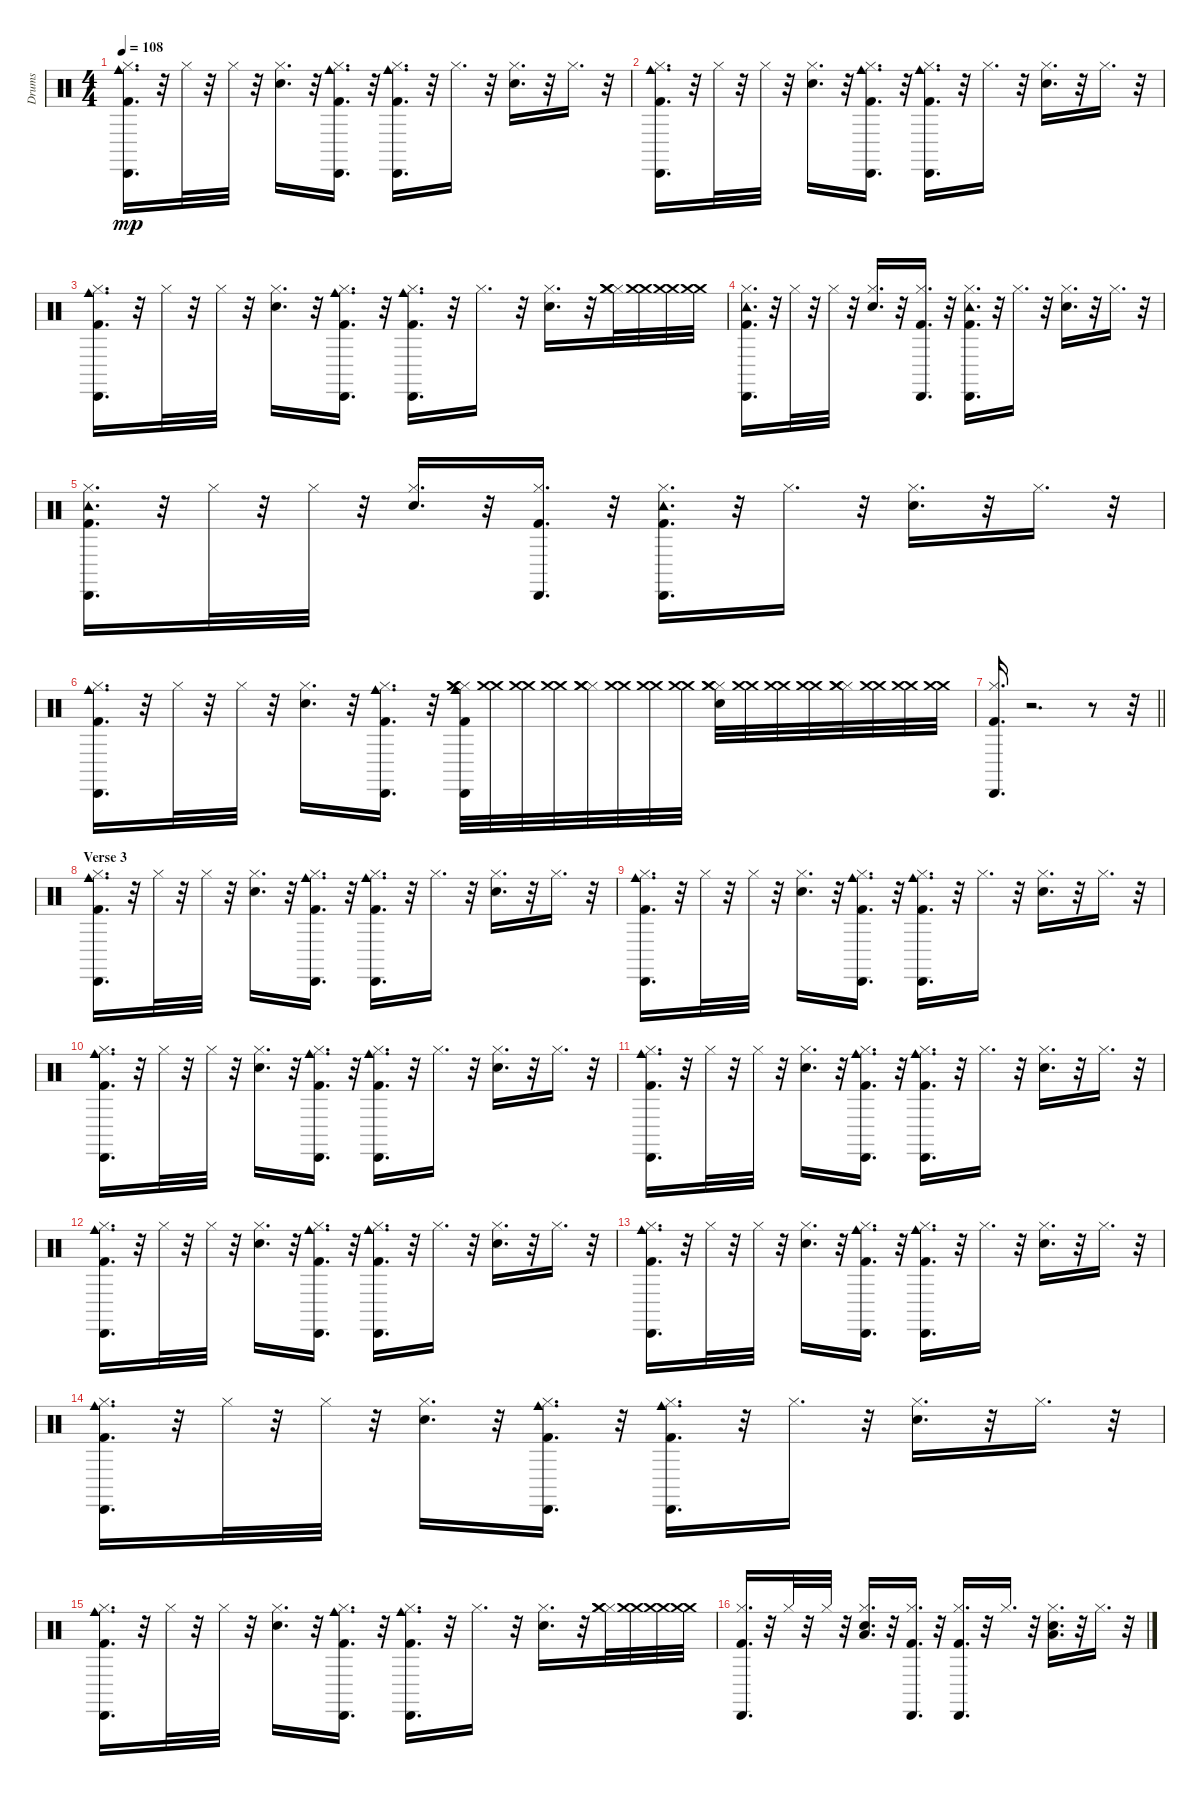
\track ("Drums" "Drums") {instrument percussion}
\staff {score}
\articulation defaults
\ts (4 4)
\tempo 108
\clef neutral
\ks c
("Kick (hit) 2" "Hi-Hat (closed)" "Cabasa (hit)" "Cowbell medium (hit)").16{d dy mp} r.32 "Hi-Hat (closed)".32 r.32 "Hi-Hat (closed)".32 r.32 ("Snare (hit) 2" "Hi-Hat (closed)").16{d} r.32 ("Kick (hit) 2" "Hi-Hat (closed)" "Cabasa (hit)" "Cowbell medium (hit)").16{d} r.32 ("Kick (hit) 2" "Hi-Hat (closed)" "Cabasa (hit)" "Cowbell medium (hit)").16{d} r.32 "Hi-Hat (closed)".16{d} r.32 ("Snare (hit) 2" "Hi-Hat (closed)").16{d} r.32 "Hi-Hat (closed)".16{d} r.32 |
("Kick (hit) 2" "Hi-Hat (closed)" "Cabasa (hit)" "Cowbell medium (hit)").16{d} r.32 "Hi-Hat (closed)".32 r.32 "Hi-Hat (closed)".32 r.32 ("Snare (hit) 2" "Hi-Hat (closed)").16{d} r.32 ("Kick (hit) 2" "Hi-Hat (closed)" "Cabasa (hit)" "Cowbell medium (hit)").16{d} r.32 ("Kick (hit) 2" "Hi-Hat (closed)" "Cabasa (hit)" "Cowbell medium (hit)").16{d} r.32 "Hi-Hat (closed)".16{d} r.32 ("Snare (hit) 2" "Hi-Hat (closed)").16{d} r.32 "Hi-Hat (closed)".16{d} r.32 |
("Kick (hit) 2" "Hi-Hat (closed)" "Cabasa (hit)" "Cowbell medium (hit)").16{d} r.32 "Hi-Hat (closed)".32 r.32 "Hi-Hat (closed)".32 r.32 ("Snare (hit) 2" "Hi-Hat (closed)").16{d} r.32 ("Kick (hit) 2" "Hi-Hat (closed)" "Cabasa (hit)" "Cowbell medium (hit)").16{d} r.32 ("Kick (hit) 2" "Hi-Hat (closed)" "Cabasa (hit)" "Cowbell medium (hit)").16{d} r.32 "Hi-Hat (closed)".16{d} r.32 ("Snare (hit) 2" "Hi-Hat (closed)").16{d} r.32 ("Hi-Hat (closed)" "Crash medium (hit)" "Crash medium (hit)").32 ("Crash medium (hit)" "Crash medium (hit)").32 ("Crash medium (hit)" "Crash medium (hit)").32 ("Crash medium (hit)" "Crash medium (hit)").32 |
("Kick (hit) 2" "Hi-Hat (closed)" "Cabasa (hit)" "Tambourine (hit)").16{d} r.32 "Hi-Hat (closed)".32 r.32 "Hi-Hat (closed)".32 r.32 ("Snare (hit) 2" "Hi-Hat (closed)").16{d} r.32 ("Kick (hit) 2" "Hi-Hat (closed)" "Cabasa (hit)").16{d} r.32 ("Kick (hit) 2" "Hi-Hat (closed)" "Cabasa (hit)" "Tambourine (hit)").16{d} r.32 "Hi-Hat (closed)".16{d} r.32 ("Snare (hit) 2" "Hi-Hat (closed)").16{d} r.32 "Hi-Hat (closed)".16{d} r.32 |
("Kick (hit) 2" "Hi-Hat (closed)" "Cabasa (hit)" "Tambourine (hit)").16{d} r.32 "Hi-Hat (closed)".32 r.32 "Hi-Hat (closed)".32 r.32 ("Snare (hit) 2" "Hi-Hat (closed)").16{d} r.32 ("Kick (hit) 2" "Hi-Hat (closed)" "Cabasa (hit)").16{d} r.32 ("Kick (hit) 2" "Hi-Hat (closed)" "Cabasa (hit)" "Tambourine (hit)").16{d} r.32 "Hi-Hat (closed)".16{d} r.32 ("Snare (hit) 2" "Hi-Hat (closed)").16{d} r.32 "Hi-Hat (closed)".16{d} r.32 |
("Kick (hit) 2" "Hi-Hat (closed)" "Cabasa (hit)" "Cowbell medium (hit)").16{d} r.32 "Hi-Hat (closed)".32 r.32 "Hi-Hat (closed)".32 r.32 ("Snare (hit) 2" "Hi-Hat (closed)").16{d} r.32 ("Kick (hit) 2" "Hi-Hat (closed)" "Cabasa (hit)" "Cowbell medium (hit)").16{d} r.32 ("Kick (hit) 2" "Hi-Hat (closed)" "Cabasa (hit)" "Cowbell medium (hit)" "Crash medium (hit)" "Crash medium (hit)").32 ("Crash medium (hit)" "Crash medium (hit)").32 ("Crash medium (hit)" "Crash medium (hit)").32 ("Crash medium (hit)" "Crash medium (hit)").32 ("Hi-Hat (closed)" "Crash medium (hit)" "Crash medium (hit)").32 ("Crash medium (hit)" "Crash medium (hit)").32 ("Crash medium (hit)" "Crash medium (hit)").32 ("Crash medium (hit)" "Crash medium (hit)").32 ("Snare (hit) 2" "Hi-Hat (closed)" "Crash medium (hit)" "Crash medium (hit)").32 ("Crash medium (hit)" "Crash medium (hit)").32 ("Crash medium (hit)" "Crash medium (hit)").32 ("Crash medium (hit)" "Crash medium (hit)").32 ("Hi-Hat (closed)" "Crash medium (hit)" "Crash medium (hit)").32 ("Crash medium (hit)" "Crash medium (hit)").32 ("Crash medium (hit)" "Crash medium (hit)").32 ("Crash medium (hit)" "Crash medium (hit)").32 |
\barLineRight lightlight
("Cabasa (hit)" "Hi-Hat (closed)" "Kick (hit) 2").16{d} r.2{d} r.8 r.32 |
\section ("" "Verse 3")
("Kick (hit) 2" "Hi-Hat (closed)" "Cabasa (hit)" "Cowbell medium (hit)").16{d} r.32 "Hi-Hat (closed)".32 r.32 "Hi-Hat (closed)".32 r.32 ("Snare (hit) 2" "Hi-Hat (closed)").16{d} r.32 ("Kick (hit) 2" "Hi-Hat (closed)" "Cabasa (hit)" "Cowbell medium (hit)").16{d} r.32 ("Kick (hit) 2" "Hi-Hat (closed)" "Cabasa (hit)" "Cowbell medium (hit)").16{d} r.32 "Hi-Hat (closed)".16{d} r.32 ("Snare (hit) 2" "Hi-Hat (closed)").16{d} r.32 "Hi-Hat (closed)".16{d} r.32 |
("Kick (hit) 2" "Hi-Hat (closed)" "Cabasa (hit)" "Cowbell medium (hit)").16{d} r.32 "Hi-Hat (closed)".32 r.32 "Hi-Hat (closed)".32 r.32 ("Snare (hit) 2" "Hi-Hat (closed)").16{d} r.32 ("Kick (hit) 2" "Hi-Hat (closed)" "Cabasa (hit)" "Cowbell medium (hit)").16{d} r.32 ("Kick (hit) 2" "Hi-Hat (closed)" "Cabasa (hit)" "Cowbell medium (hit)").16{d} r.32 "Hi-Hat (closed)".16{d} r.32 ("Snare (hit) 2" "Hi-Hat (closed)").16{d} r.32 "Hi-Hat (closed)".16{d} r.32 |
("Kick (hit) 2" "Hi-Hat (closed)" "Cabasa (hit)" "Cowbell medium (hit)").16{d} r.32 "Hi-Hat (closed)".32 r.32 "Hi-Hat (closed)".32 r.32 ("Snare (hit) 2" "Hi-Hat (closed)").16{d} r.32 ("Kick (hit) 2" "Hi-Hat (closed)" "Cabasa (hit)" "Cowbell medium (hit)").16{d} r.32 ("Kick (hit) 2" "Hi-Hat (closed)" "Cabasa (hit)" "Cowbell medium (hit)").16{d} r.32 "Hi-Hat (closed)".16{d} r.32 ("Snare (hit) 2" "Hi-Hat (closed)").16{d} r.32 "Hi-Hat (closed)".16{d} r.32 |
("Kick (hit) 2" "Hi-Hat (closed)" "Cabasa (hit)" "Cowbell medium (hit)").16{d} r.32 "Hi-Hat (closed)".32 r.32 "Hi-Hat (closed)".32 r.32 ("Snare (hit) 2" "Hi-Hat (closed)").16{d} r.32 ("Kick (hit) 2" "Hi-Hat (closed)" "Cabasa (hit)" "Cowbell medium (hit)").16{d} r.32 ("Kick (hit) 2" "Hi-Hat (closed)" "Cabasa (hit)" "Cowbell medium (hit)").16{d} r.32 "Hi-Hat (closed)".16{d} r.32 ("Snare (hit) 2" "Hi-Hat (closed)").16{d} r.32 "Hi-Hat (closed)".16{d} r.32 |
("Kick (hit) 2" "Hi-Hat (closed)" "Cabasa (hit)" "Cowbell medium (hit)").16{d} r.32 "Hi-Hat (closed)".32 r.32 "Hi-Hat (closed)".32 r.32 ("Snare (hit) 2" "Hi-Hat (closed)").16{d} r.32 ("Kick (hit) 2" "Hi-Hat (closed)" "Cabasa (hit)" "Cowbell medium (hit)").16{d} r.32 ("Kick (hit) 2" "Hi-Hat (closed)" "Cabasa (hit)" "Cowbell medium (hit)").16{d} r.32 "Hi-Hat (closed)".16{d} r.32 ("Snare (hit) 2" "Hi-Hat (closed)").16{d} r.32 "Hi-Hat (closed)".16{d} r.32 |
("Kick (hit) 2" "Hi-Hat (closed)" "Cabasa (hit)" "Cowbell medium (hit)").16{d} r.32 "Hi-Hat (closed)".32 r.32 "Hi-Hat (closed)".32 r.32 ("Snare (hit) 2" "Hi-Hat (closed)").16{d} r.32 ("Kick (hit) 2" "Hi-Hat (closed)" "Cabasa (hit)" "Cowbell medium (hit)").16{d} r.32 ("Kick (hit) 2" "Hi-Hat (closed)" "Cabasa (hit)" "Cowbell medium (hit)").16{d} r.32 "Hi-Hat (closed)".16{d} r.32 ("Snare (hit) 2" "Hi-Hat (closed)").16{d} r.32 "Hi-Hat (closed)".16{d} r.32 |
("Kick (hit) 2" "Hi-Hat (closed)" "Cabasa (hit)" "Cowbell medium (hit)").16{d} r.32 "Hi-Hat (closed)".32 r.32 "Hi-Hat (closed)".32 r.32 ("Snare (hit) 2" "Hi-Hat (closed)").16{d} r.32 ("Kick (hit) 2" "Hi-Hat (closed)" "Cabasa (hit)" "Cowbell medium (hit)").16{d} r.32 ("Kick (hit) 2" "Hi-Hat (closed)" "Cabasa (hit)" "Cowbell medium (hit)").16{d} r.32 "Hi-Hat (closed)".16{d} r.32 ("Snare (hit) 2" "Hi-Hat (closed)").16{d} r.32 "Hi-Hat (closed)".16{d} r.32 |
("Kick (hit) 2" "Hi-Hat (closed)" "Cabasa (hit)" "Cowbell medium (hit)").16{d} r.32 "Hi-Hat (closed)".32 r.32 "Hi-Hat (closed)".32 r.32 ("Snare (hit) 2" "Hi-Hat (closed)").16{d} r.32 ("Kick (hit) 2" "Hi-Hat (closed)" "Cabasa (hit)" "Cowbell medium (hit)").16{d} r.32 ("Kick (hit) 2" "Hi-Hat (closed)" "Cabasa (hit)" "Cowbell medium (hit)").16{d} r.32 "Hi-Hat (closed)".16{d} r.32 ("Snare (hit) 2" "Hi-Hat (closed)").16{d} r.32 ("Hi-Hat (closed)" "Crash medium (hit)" "Crash medium (hit)").32 ("Crash medium (hit)" "Crash medium (hit)").32 ("Crash medium (hit)" "Crash medium (hit)").32 ("Crash medium (hit)" "Crash medium (hit)").32 |
("Kick (hit) 2" "Hi-Hat (closed)" "Cabasa (hit)").16{d} r.32 "Hi-Hat (closed)".32 r.32 "Hi-Hat (closed)".32 r.32 ("Snare (hit) 2" "Hi-Hat (closed)" "Low Tom (hit)").16{d} r.32 ("Kick (hit) 2" "Hi-Hat (closed)" "Cabasa (hit)").16{d} r.32 ("Kick (hit) 2" "Hi-Hat (closed)" "Cabasa (hit)").16{d} r.32 "Hi-Hat (closed)".16{d} r.32 ("Snare (hit) 2" "Hi-Hat (closed)" "Low Tom (hit)").16{d} r.32 "Hi-Hat (closed)".16{d} r.32
